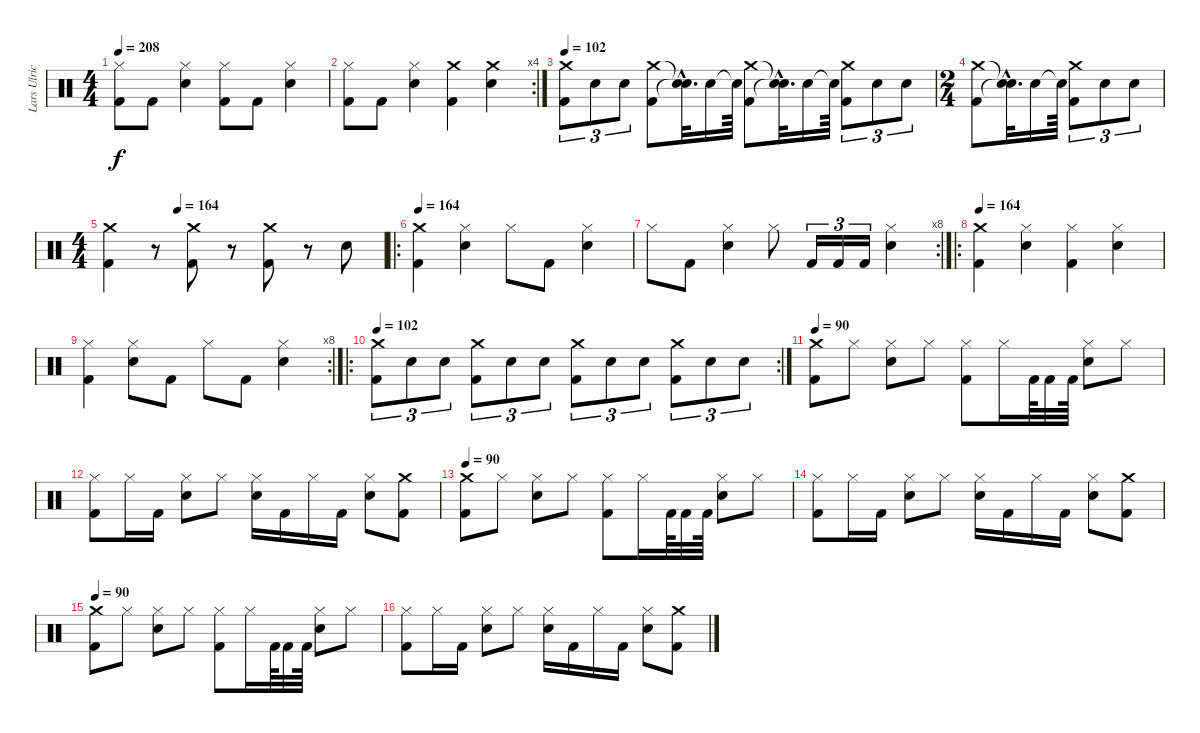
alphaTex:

\track ("Lars Ulrich (Drums)" "Lars Ulric") {instrument percussion}
\staff {score}
\articulation defaults
\ts (4 4)
\tempo 208
\clef neutral
\ks c
("Hi-Hat (closed)" "Kick (hit) 2").8{dy f} "Kick (hit) 2".8 ("Snare (hit) 2" "Hi-Hat (closed)").4 ("Hi-Hat (closed)" "Kick (hit) 2").8 "Kick (hit) 2".8 ("Snare (hit) 2" "Hi-Hat (closed)").4 |
\rc 4
("Hi-Hat (closed)" "Kick (hit) 2").8 "Kick (hit) 2".8 ("Snare (hit) 2" "Hi-Hat (closed)").4 ("Crash medium (hit)" "Kick (hit) 2").4 ("Crash medium (hit)" "Snare (hit) 2").4 |
\tempo 102
("Crash medium (hit)" "Kick (hit) 2").8{tu (3 2)} "Snare (hit) 2".8{tu (3 2)} "Snare (hit) 2".8{tu (3 2)} ("Crash medium (hit)" "Kick (hit) 2").8 ("Snare (hit)"{hac t} "Snare (hit)"{hac t}).32{d} "Snare (hit) 2".16 "Snare (hit)"{t}.64 ("Crash medium (hit)" "Kick (hit) 2").8 ("Snare (hit)"{hac t} "Snare (hit)"{hac t}).32{d} "Snare (hit) 2".16 "Snare (hit)"{t}.64 ("Crash medium (hit)" "Kick (hit) 2").8{tu (3 2)} "Snare (hit) 2".8{tu (3 2)} "Snare (hit) 2".8{tu (3 2)} |
\ts (2 4)
("Kick (hit) 2" "Crash medium (hit)").8 ("Snare (hit)"{hac t} "Snare (hit)"{hac t}).32{d} "Snare (hit) 2".16 "Snare (hit)"{t}.64 ("Kick (hit) 2" "Crash medium (hit)").8{tu (3 2)} "Snare (hit) 2".8{tu (3 2)} "Snare (hit) 2".8{tu (3 2)} |
\ts (4 4)
\tempo (164 0.25)
("Crash medium (hit)" "Kick (hit) 2").4 r.8 ("Kick (hit) 2" "Crash medium (hit)").8 r.8 ("Crash medium (hit)" "Kick (hit) 2").8 r.8 "Snare (hit) 2".8 |
\ro
\tempo 164
("Kick (hit) 2" "Crash medium (hit)").4 ("Hi-Hat (closed)" "Snare (hit) 2").4 "Hi-Hat (closed)".8 "Kick (hit) 2".8 ("Snare (hit) 2" "Hi-Hat (closed)").4 |
\rc 8 "Hi-Hat (closed)".8 "Kick (hit) 2".8
("Snare (hit) 2" "Hi-Hat (closed)").4 "Hi-Hat (closed)".8 "Kick (hit) 2".16{tu (3 2)} "Kick (hit) 2".16{tu (3 2)} "Kick (hit) 2".16{tu (3 2)} ("Snare (hit) 2" "Hi-Hat (closed)").4 |
\ro
\tempo 164
("Kick (hit) 2" "Crash medium (hit)").4 ("Hi-Hat (closed)" "Snare (hit) 2").4 ("Hi-Hat (closed)" "Kick (hit) 2").4 ("Snare (hit) 2" "Hi-Hat (closed)").4 |
\rc 8
("Hi-Hat (closed)" "Kick (hit) 2").4 ("Snare (hit) 2" "Hi-Hat (closed)").8 "Kick (hit) 2".8 "Hi-Hat (closed)".8 "Kick (hit) 2".8 ("Snare (hit) 2" "Hi-Hat (closed)").4 |
\ro
\rc 2
\tempo 102
("Kick (hit) 2" "Crash medium (hit)").8{tu (3 2)} "Snare (hit) 2".8{tu (3 2)} "Snare (hit) 2".8{tu (3 2)} ("Kick (hit) 2" "Crash medium (hit)").8{tu (3 2)} "Snare (hit) 2".8{tu (3 2)} "Snare (hit) 2".8{tu (3 2)} ("Kick (hit) 2" "Crash medium (hit)").8{tu (3 2)} "Snare (hit) 2".8{tu (3 2)} "Snare (hit) 2".8{tu (3 2)} ("Kick (hit) 2" "Crash medium (hit)").8{tu (3 2)} "Snare (hit) 2".8{tu (3 2)} "Snare (hit) 2".8{tu (3 2)} |
\tempo 90
("Crash medium (hit)" "Kick (hit) 2").8 "Hi-Hat (closed)".8 ("Snare (hit) 2" "Hi-Hat (closed)").8 "Hi-Hat (closed)".8 ("Hi-Hat (closed)" "Kick (hit) 2").8 "Hi-Hat (closed)".16 "Kick (hit) 2".64 "Kick (hit) 2".32 "Kick (hit) 2".64 ("Snare (hit) 2" "Hi-Hat (closed)").8 "Hi-Hat (closed)".8 |
("Hi-Hat (closed)" "Kick (hit) 2").8 "Hi-Hat (closed)".16 "Kick (hit) 2".16 ("Snare (hit) 2" "Hi-Hat (closed)").8 "Hi-Hat (closed)".8 ("Snare (hit) 2" "Hi-Hat (closed)").16 "Kick (hit) 2".16 "Hi-Hat (closed)".16 "Kick (hit) 2".16 ("Snare (hit) 2" "Hi-Hat (closed)").8 ("Crash medium (hit)" "Kick (hit) 2").8 |
\tempo 90
("Crash medium (hit)" "Kick (hit) 2").8 "Hi-Hat (closed)".8 ("Snare (hit) 2" "Hi-Hat (closed)").8 "Hi-Hat (closed)".8 ("Hi-Hat (closed)" "Kick (hit) 2").8 "Hi-Hat (closed)".16 "Kick (hit) 2".64 "Kick (hit) 2".32 "Kick (hit) 2".64 ("Snare (hit) 2" "Hi-Hat (closed)").8 "Hi-Hat (closed)".8 |
("Hi-Hat (closed)" "Kick (hit) 2").8 "Hi-Hat (closed)".16 "Kick (hit) 2".16 ("Snare (hit) 2" "Hi-Hat (closed)").8 "Hi-Hat (closed)".8 ("Snare (hit) 2" "Hi-Hat (closed)").16 "Kick (hit) 2".16 "Hi-Hat (closed)".16 "Kick (hit) 2".16 ("Snare (hit) 2" "Hi-Hat (closed)").8 ("Crash medium (hit)" "Kick (hit) 2").8 |
\tempo 90
("Crash medium (hit)" "Kick (hit) 2").8 "Hi-Hat (closed)".8 ("Snare (hit) 2" "Hi-Hat (closed)").8 "Hi-Hat (closed)".8 ("Hi-Hat (closed)" "Kick (hit) 2").8 "Hi-Hat (closed)".16 "Kick (hit) 2".64 "Kick (hit) 2".32 "Kick (hit) 2".64 ("Snare (hit) 2" "Hi-Hat (closed)").8 "Hi-Hat (closed)".8 |
("Hi-Hat (closed)" "Kick (hit) 2").8 "Hi-Hat (closed)".16 "Kick (hit) 2".16 ("Snare (hit) 2" "Hi-Hat (closed)").8 "Hi-Hat (closed)".8 ("Snare (hit) 2" "Hi-Hat (closed)").16 "Kick (hit) 2".16 "Hi-Hat (closed)".16 "Kick (hit) 2".16 ("Snare (hit) 2" "Hi-Hat (closed)").8 ("Crash medium (hit)" "Kick (hit) 2").8
